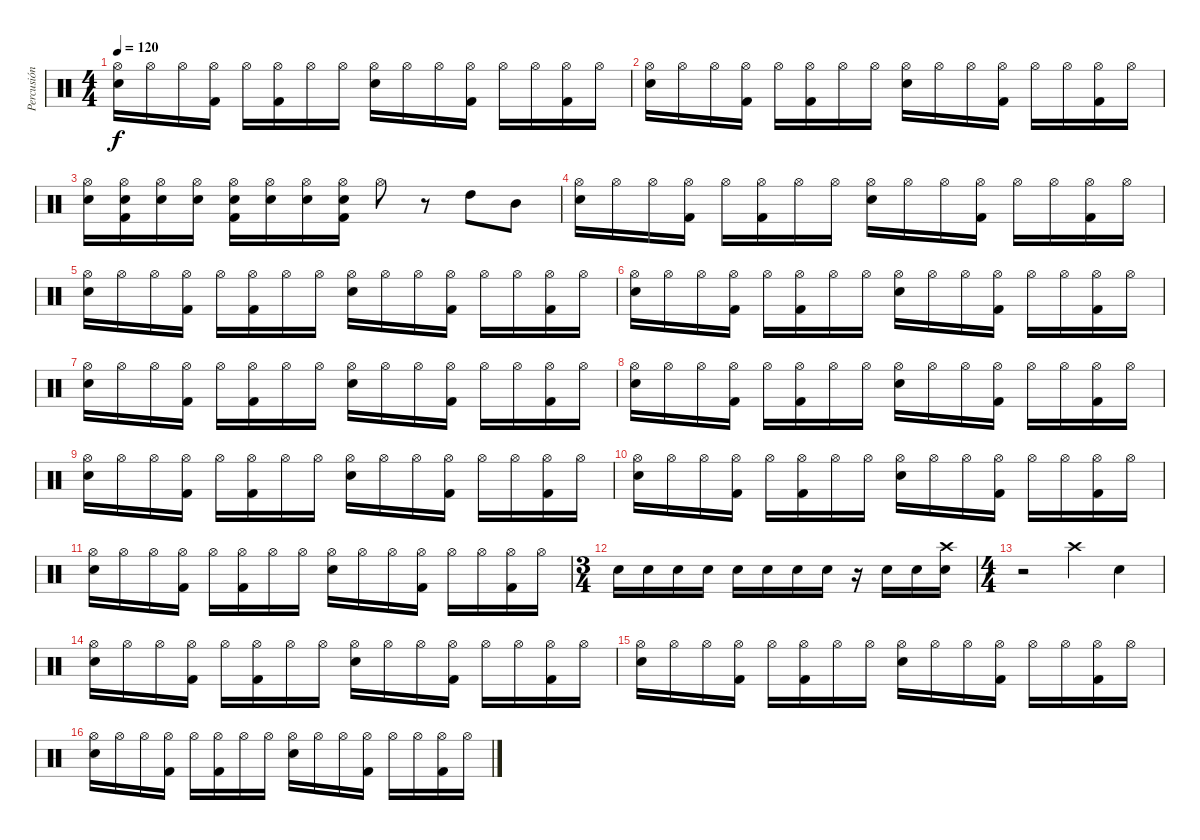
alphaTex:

\track ("Percusión" "Percusión") {instrument percussion}
\staff {score}
\articulation defaults
\ts (4 4)
\tempo 120
\clef neutral
\ks c
("Hi-Hat (open)" "Snare (hit) 2").16{dy f} "Hi-Hat (open)".16 "Hi-Hat (open)".16 ("Hi-Hat (open)" "Kick (hit) 2").16 "Hi-Hat (open)".16 ("Hi-Hat (open)" "Kick (hit) 2").16 "Hi-Hat (open)".16 "Hi-Hat (open)".16 ("Hi-Hat (open)" "Snare (hit) 2").16 "Hi-Hat (open)".16 "Hi-Hat (open)".16 ("Hi-Hat (open)" "Kick (hit) 2").16 "Hi-Hat (open)".16 "Hi-Hat (open)".16 ("Hi-Hat (open)" "Kick (hit) 2").16 "Hi-Hat (open)".16 |
("Hi-Hat (open)" "Snare (hit) 2").16 "Hi-Hat (open)".16 "Hi-Hat (open)".16 ("Hi-Hat (open)" "Kick (hit) 2").16 "Hi-Hat (open)".16 ("Hi-Hat (open)" "Kick (hit) 2").16 "Hi-Hat (open)".16 "Hi-Hat (open)".16 ("Hi-Hat (open)" "Snare (hit) 2").16 "Hi-Hat (open)".16 "Hi-Hat (open)".16 ("Hi-Hat (open)" "Kick (hit) 2").16 "Hi-Hat (open)".16 "Hi-Hat (open)".16 ("Hi-Hat (open)" "Kick (hit) 2").16 "Hi-Hat (open)".16 |
("Hi-Hat (open)" "Snare (hit) 2").16 ("Hi-Hat (open)" "Snare (hit) 2" "Kick (hit) 2").16 ("Hi-Hat (open)" "Snare (hit) 2").16 ("Hi-Hat (open)" "Snare (hit) 2").16 ("Hi-Hat (open)" "Snare (hit) 2" "Kick (hit) 2").16 ("Hi-Hat (open)" "Snare (hit) 2").16 ("Hi-Hat (open)" "Snare (hit) 2").16 ("Hi-Hat (open)" "Snare (hit) 2" "Kick (hit) 2").16 "Hi-Hat (open)".8 r.8 "High Tom (hit)".8 "Mid Tom (hit)".8 |
("Hi-Hat (open)" "Snare (hit) 2").16 "Hi-Hat (open)".16 "Hi-Hat (open)".16 ("Hi-Hat (open)" "Kick (hit) 2").16 "Hi-Hat (open)".16 ("Hi-Hat (open)" "Kick (hit) 2").16 "Hi-Hat (open)".16 "Hi-Hat (open)".16 ("Hi-Hat (open)" "Snare (hit) 2").16 "Hi-Hat (open)".16 "Hi-Hat (open)".16 ("Hi-Hat (open)" "Kick (hit) 2").16 "Hi-Hat (open)".16 "Hi-Hat (open)".16 ("Hi-Hat (open)" "Kick (hit) 2").16 "Hi-Hat (open)".16 |
("Hi-Hat (open)" "Snare (hit) 2").16 "Hi-Hat (open)".16 "Hi-Hat (open)".16 ("Hi-Hat (open)" "Kick (hit) 2").16 "Hi-Hat (open)".16 ("Hi-Hat (open)" "Kick (hit) 2").16 "Hi-Hat (open)".16 "Hi-Hat (open)".16 ("Hi-Hat (open)" "Snare (hit) 2").16 "Hi-Hat (open)".16 "Hi-Hat (open)".16 ("Hi-Hat (open)" "Kick (hit) 2").16 "Hi-Hat (open)".16 "Hi-Hat (open)".16 ("Hi-Hat (open)" "Kick (hit) 2").16 "Hi-Hat (open)".16 |
("Hi-Hat (open)" "Snare (hit) 2").16 "Hi-Hat (open)".16 "Hi-Hat (open)".16 ("Hi-Hat (open)" "Kick (hit) 2").16 "Hi-Hat (open)".16 ("Hi-Hat (open)" "Kick (hit) 2").16 "Hi-Hat (open)".16 "Hi-Hat (open)".16 ("Hi-Hat (open)" "Snare (hit) 2").16 "Hi-Hat (open)".16 "Hi-Hat (open)".16 ("Hi-Hat (open)" "Kick (hit) 2").16 "Hi-Hat (open)".16 "Hi-Hat (open)".16 ("Hi-Hat (open)" "Kick (hit) 2").16 "Hi-Hat (open)".16 |
("Hi-Hat (open)" "Snare (hit) 2").16 "Hi-Hat (open)".16 "Hi-Hat (open)".16 ("Hi-Hat (open)" "Kick (hit) 2").16 "Hi-Hat (open)".16 ("Hi-Hat (open)" "Kick (hit) 2").16 "Hi-Hat (open)".16 "Hi-Hat (open)".16 ("Hi-Hat (open)" "Snare (hit) 2").16 "Hi-Hat (open)".16 "Hi-Hat (open)".16 ("Hi-Hat (open)" "Kick (hit) 2").16 "Hi-Hat (open)".16 "Hi-Hat (open)".16 ("Hi-Hat (open)" "Kick (hit) 2").16 "Hi-Hat (open)".16 |
("Hi-Hat (open)" "Snare (hit) 2").16 "Hi-Hat (open)".16 "Hi-Hat (open)".16 ("Hi-Hat (open)" "Kick (hit) 2").16 "Hi-Hat (open)".16 ("Hi-Hat (open)" "Kick (hit) 2").16 "Hi-Hat (open)".16 "Hi-Hat (open)".16 ("Hi-Hat (open)" "Snare (hit) 2").16 "Hi-Hat (open)".16 "Hi-Hat (open)".16 ("Hi-Hat (open)" "Kick (hit) 2").16 "Hi-Hat (open)".16 "Hi-Hat (open)".16 ("Hi-Hat (open)" "Kick (hit) 2").16 "Hi-Hat (open)".16 |
("Hi-Hat (open)" "Snare (hit) 2").16 "Hi-Hat (open)".16 "Hi-Hat (open)".16 ("Hi-Hat (open)" "Kick (hit) 2").16 "Hi-Hat (open)".16 ("Hi-Hat (open)" "Kick (hit) 2").16 "Hi-Hat (open)".16 "Hi-Hat (open)".16 ("Hi-Hat (open)" "Snare (hit) 2").16 "Hi-Hat (open)".16 "Hi-Hat (open)".16 ("Hi-Hat (open)" "Kick (hit) 2").16 "Hi-Hat (open)".16 "Hi-Hat (open)".16 ("Hi-Hat (open)" "Kick (hit) 2").16 "Hi-Hat (open)".16 |
("Hi-Hat (open)" "Snare (hit) 2").16 "Hi-Hat (open)".16 "Hi-Hat (open)".16 ("Hi-Hat (open)" "Kick (hit) 2").16 "Hi-Hat (open)".16 ("Hi-Hat (open)" "Kick (hit) 2").16 "Hi-Hat (open)".16 "Hi-Hat (open)".16 ("Hi-Hat (open)" "Snare (hit) 2").16 "Hi-Hat (open)".16 "Hi-Hat (open)".16 ("Hi-Hat (open)" "Kick (hit) 2").16 "Hi-Hat (open)".16 "Hi-Hat (open)".16 ("Hi-Hat (open)" "Kick (hit) 2").16 "Hi-Hat (open)".16 |
("Hi-Hat (open)" "Snare (hit) 2").16 "Hi-Hat (open)".16 "Hi-Hat (open)".16 ("Hi-Hat (open)" "Kick (hit) 2").16 "Hi-Hat (open)".16 ("Hi-Hat (open)" "Kick (hit) 2").16 "Hi-Hat (open)".16 "Hi-Hat (open)".16 ("Hi-Hat (open)" "Snare (hit) 2").16 "Hi-Hat (open)".16 "Hi-Hat (open)".16 ("Hi-Hat (open)" "Kick (hit) 2").16 "Hi-Hat (open)".16 "Hi-Hat (open)".16 ("Hi-Hat (open)" "Kick (hit) 2").16 "Hi-Hat (open)".16 |
\ts (3 4)
"Snare (hit) 2".16 "Snare (hit) 2".16 "Snare (hit) 2".16 "Snare (hit) 2".16 "Snare (hit) 2".16 "Snare (hit) 2".16 "Snare (hit) 2".16 "Snare (hit) 2".16 r.16 "Snare (hit) 2".16 "Snare (hit) 2".16 ("Snare (hit) 2" "Crash high (hit)").16 |
\ts (4 4)
r.2 "Crash high (hit)".4 "Snare (hit) 2".4 |
("Hi-Hat (open)" "Snare (hit) 2").16 "Hi-Hat (open)".16 "Hi-Hat (open)".16 ("Hi-Hat (open)" "Kick (hit) 2").16 "Hi-Hat (open)".16 ("Hi-Hat (open)" "Kick (hit) 2").16 "Hi-Hat (open)".16 "Hi-Hat (open)".16 ("Hi-Hat (open)" "Snare (hit) 2").16 "Hi-Hat (open)".16 "Hi-Hat (open)".16 ("Hi-Hat (open)" "Kick (hit) 2").16 "Hi-Hat (open)".16 "Hi-Hat (open)".16 ("Hi-Hat (open)" "Kick (hit) 2").16 "Hi-Hat (open)".16 |
("Hi-Hat (open)" "Snare (hit) 2").16 "Hi-Hat (open)".16 "Hi-Hat (open)".16 ("Hi-Hat (open)" "Kick (hit) 2").16 "Hi-Hat (open)".16 ("Hi-Hat (open)" "Kick (hit) 2").16 "Hi-Hat (open)".16 "Hi-Hat (open)".16 ("Hi-Hat (open)" "Snare (hit) 2").16 "Hi-Hat (open)".16 "Hi-Hat (open)".16 ("Hi-Hat (open)" "Kick (hit) 2").16 "Hi-Hat (open)".16 "Hi-Hat (open)".16 ("Hi-Hat (open)" "Kick (hit) 2").16 "Hi-Hat (open)".16 |
("Hi-Hat (open)" "Snare (hit) 2").16 "Hi-Hat (open)".16 "Hi-Hat (open)".16 ("Hi-Hat (open)" "Kick (hit) 2").16 "Hi-Hat (open)".16 ("Hi-Hat (open)" "Kick (hit) 2").16 "Hi-Hat (open)".16 "Hi-Hat (open)".16 ("Hi-Hat (open)" "Snare (hit) 2").16 "Hi-Hat (open)".16 "Hi-Hat (open)".16 ("Hi-Hat (open)" "Kick (hit) 2").16 "Hi-Hat (open)".16 "Hi-Hat (open)".16 ("Hi-Hat (open)" "Kick (hit) 2").16 "Hi-Hat (open)".16
